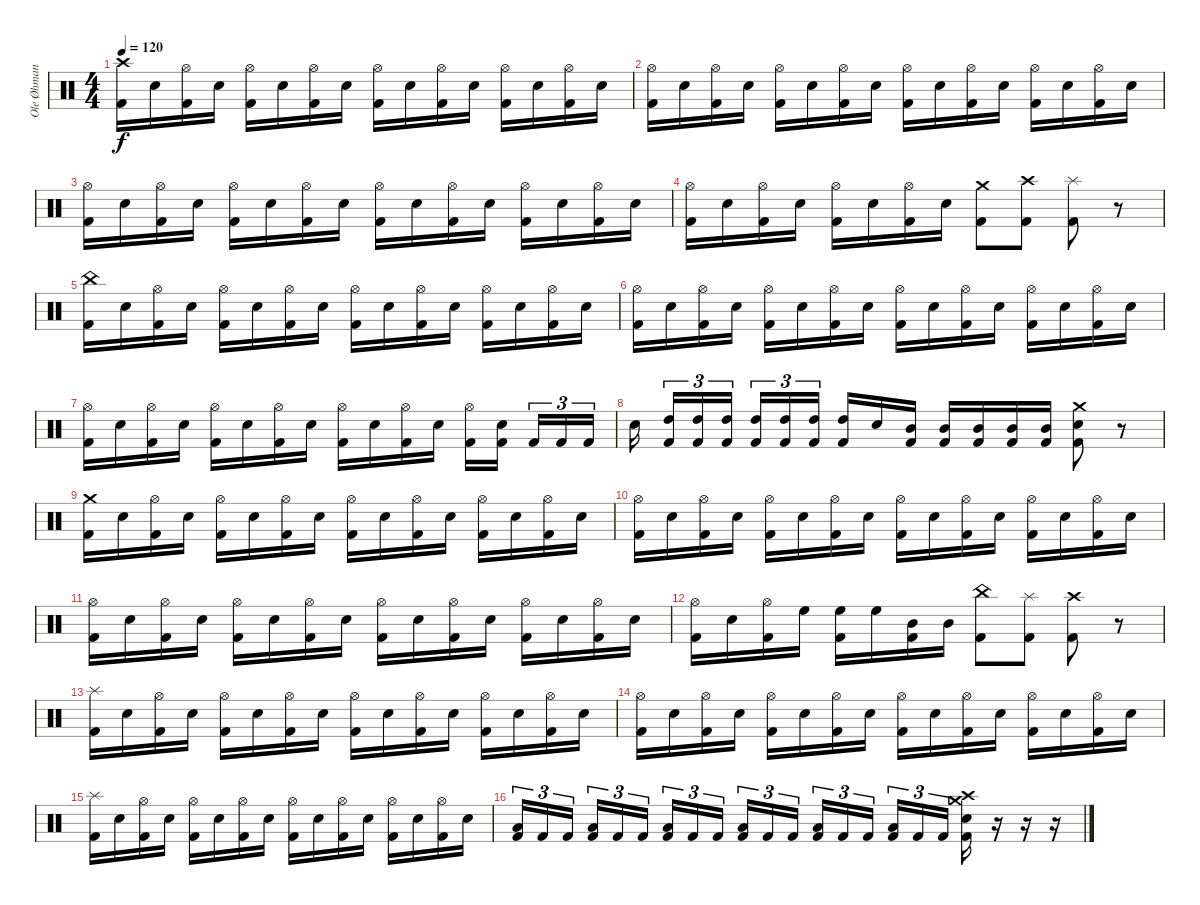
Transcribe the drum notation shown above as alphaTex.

\track ("Ole Øhman (Trommur)" "Ole Øhman ") {instrument percussion}
\staff {score}
\articulation defaults
\ts (4 4)
\tempo 120
\clef neutral
\ks c
("Crash high (hit)" "Kick (hit) 2").16{dy f} "Electric Snare (hit)".16 ("Hi-Hat (open)" "Kick (hit) 2").16 "Electric Snare (hit)".16 ("Hi-Hat (open)" "Kick (hit) 2").16 "Electric Snare (hit)".16 ("Hi-Hat (open)" "Kick (hit) 2").16 "Electric Snare (hit)".16 ("Hi-Hat (open)" "Kick (hit) 2").16 "Electric Snare (hit)".16 ("Hi-Hat (open)" "Kick (hit) 2").16 "Electric Snare (hit)".16 ("Hi-Hat (open)" "Kick (hit) 2").16 "Electric Snare (hit)".16 ("Hi-Hat (open)" "Kick (hit) 2").16 "Electric Snare (hit)".16 |
("Hi-Hat (open)" "Kick (hit) 2").16 "Electric Snare (hit)".16 ("Hi-Hat (open)" "Kick (hit) 2").16 "Electric Snare (hit)".16 ("Hi-Hat (open)" "Kick (hit) 2").16 "Electric Snare (hit)".16 ("Hi-Hat (open)" "Kick (hit) 2").16 "Electric Snare (hit)".16 ("Hi-Hat (open)" "Kick (hit) 2").16 "Electric Snare (hit)".16 ("Hi-Hat (open)" "Kick (hit) 2").16 "Electric Snare (hit)".16 ("Hi-Hat (open)" "Kick (hit) 2").16 "Electric Snare (hit)".16 ("Hi-Hat (open)" "Kick (hit) 2").16 "Electric Snare (hit)".16 |
("Hi-Hat (open)" "Kick (hit) 2").16 "Electric Snare (hit)".16 ("Hi-Hat (open)" "Kick (hit) 2").16 "Electric Snare (hit)".16 ("Hi-Hat (open)" "Kick (hit) 2").16 "Electric Snare (hit)".16 ("Hi-Hat (open)" "Kick (hit) 2").16 "Electric Snare (hit)".16 ("Hi-Hat (open)" "Kick (hit) 2").16 "Electric Snare (hit)".16 ("Hi-Hat (open)" "Kick (hit) 2").16 "Electric Snare (hit)".16 ("Hi-Hat (open)" "Kick (hit) 2").16 "Electric Snare (hit)".16 ("Hi-Hat (open)" "Kick (hit) 2").16 "Electric Snare (hit)".16 |
("Hi-Hat (open)" "Kick (hit) 2").16 "Electric Snare (hit)".16 ("Hi-Hat (open)" "Kick (hit) 2").16 "Electric Snare (hit)".16 ("Hi-Hat (open)" "Kick (hit) 2").16 "Electric Snare (hit)".16 ("Hi-Hat (open)" "Kick (hit) 2").16 "Electric Snare (hit)".16 ("Crash medium (hit)" "Kick (hit) 2").8 ("Crash high (hit)" "Kick (hit) 2").8 ("Splash (hit)" "Kick (hit) 2").8 r.8 |
("China (hit)" "Kick (hit) 2").16 "Electric Snare (hit)".16 ("Hi-Hat (open)" "Kick (hit) 2").16 "Electric Snare (hit)".16 ("Hi-Hat (open)" "Kick (hit) 2").16 "Electric Snare (hit)".16 ("Hi-Hat (open)" "Kick (hit) 2").16 "Electric Snare (hit)".16 ("Hi-Hat (open)" "Kick (hit) 2").16 "Electric Snare (hit)".16 ("Hi-Hat (open)" "Kick (hit) 2").16 "Electric Snare (hit)".16 ("Hi-Hat (open)" "Kick (hit) 2").16 "Electric Snare (hit)".16 ("Hi-Hat (open)" "Kick (hit) 2").16 "Electric Snare (hit)".16 |
("Hi-Hat (open)" "Kick (hit) 2").16 "Electric Snare (hit)".16 ("Hi-Hat (open)" "Kick (hit) 2").16 "Electric Snare (hit)".16 ("Hi-Hat (open)" "Kick (hit) 2").16 "Electric Snare (hit)".16 ("Hi-Hat (open)" "Kick (hit) 2").16 "Electric Snare (hit)".16 ("Hi-Hat (open)" "Kick (hit) 2").16 "Electric Snare (hit)".16 ("Hi-Hat (open)" "Kick (hit) 2").16 "Electric Snare (hit)".16 ("Hi-Hat (open)" "Kick (hit) 2").16 "Electric Snare (hit)".16 ("Hi-Hat (open)" "Kick (hit) 2").16 "Electric Snare (hit)".16 |
("Hi-Hat (open)" "Kick (hit) 2").16 "Electric Snare (hit)".16 ("Hi-Hat (open)" "Kick (hit) 2").16 "Electric Snare (hit)".16 ("Hi-Hat (open)" "Kick (hit) 2").16 "Electric Snare (hit)".16 ("Hi-Hat (open)" "Kick (hit) 2").16 "Electric Snare (hit)".16 ("Hi-Hat (open)" "Kick (hit) 2").16 "Electric Snare (hit)".16 ("Hi-Hat (open)" "Kick (hit) 2").16 "Electric Snare (hit)".16 ("Hi-Hat (open)" "Kick (hit) 2").16 ("Electric Snare (hit)" "Kick (hit) 2").16 "Kick (hit) 2".16{tu (3 2)} "Kick (hit) 2".16{tu (3 2)} "Kick (hit) 2".16{tu (3 2)} |
"Electric Snare (hit)".16 ("High Tom (hit)" "Kick (hit) 2").16{tu (3 2)} ("High Tom (hit)" "Kick (hit) 2").16{tu (3 2)} ("High Tom (hit)" "Kick (hit) 2").16{tu (3 2)} ("High Tom (hit)" "Kick (hit) 2").16{tu (3 2)} ("High Tom (hit)" "Kick (hit) 2").16{tu (3 2)} ("High Tom (hit)" "Kick (hit) 2").16{tu (3 2)} ("High Tom (hit)" "Kick (hit) 2").16 "Electric Snare (hit)".16 ("Mid Tom (hit)" "Kick (hit) 2").16 ("Mid Tom (hit)" "Kick (hit) 2").16 ("Mid Tom (hit)" "Kick (hit) 2").16 ("Mid Tom (hit)" "Kick (hit) 2").16 ("Mid Tom (hit)" "Kick (hit) 2").16 ("Crash medium (hit)" "Electric Snare (hit)" "Kick (hit) 2").8 r.8 |
("Crash medium (hit)" "Kick (hit) 2").16 "Electric Snare (hit)".16 ("Hi-Hat (open)" "Kick (hit) 2").16 "Electric Snare (hit)".16 ("Hi-Hat (open)" "Kick (hit) 2").16 "Electric Snare (hit)".16 ("Hi-Hat (open)" "Kick (hit) 2").16 "Electric Snare (hit)".16 ("Hi-Hat (open)" "Kick (hit) 2").16 "Electric Snare (hit)".16 ("Hi-Hat (open)" "Kick (hit) 2").16 "Electric Snare (hit)".16 ("Hi-Hat (open)" "Kick (hit) 2").16 "Electric Snare (hit)".16 ("Hi-Hat (open)" "Kick (hit) 2").16 "Electric Snare (hit)".16 |
("Hi-Hat (open)" "Kick (hit) 2").16 "Electric Snare (hit)".16 ("Hi-Hat (open)" "Kick (hit) 2").16 "Electric Snare (hit)".16 ("Hi-Hat (open)" "Kick (hit) 2").16 "Electric Snare (hit)".16 ("Hi-Hat (open)" "Kick (hit) 2").16 "Electric Snare (hit)".16 ("Hi-Hat (open)" "Kick (hit) 2").16 "Electric Snare (hit)".16 ("Hi-Hat (open)" "Kick (hit) 2").16 "Electric Snare (hit)".16 ("Hi-Hat (open)" "Kick (hit) 2").16 "Electric Snare (hit)".16 ("Hi-Hat (open)" "Kick (hit) 2").16 "Electric Snare (hit)".16 |
("Hi-Hat (open)" "Kick (hit) 2").16 "Electric Snare (hit)".16 ("Hi-Hat (open)" "Kick (hit) 2").16 "Electric Snare (hit)".16 ("Hi-Hat (open)" "Kick (hit) 2").16 "Electric Snare (hit)".16 ("Hi-Hat (open)" "Kick (hit) 2").16 "Electric Snare (hit)".16 ("Hi-Hat (open)" "Kick (hit) 2").16 "Electric Snare (hit)".16 ("Hi-Hat (open)" "Kick (hit) 2").16 "Electric Snare (hit)".16 ("Hi-Hat (open)" "Kick (hit) 2").16 "Electric Snare (hit)".16 ("Hi-Hat (open)" "Kick (hit) 2").16 "Electric Snare (hit)".16 |
("Hi-Hat (open)" "Kick (hit) 2").16 "Electric Snare (hit)".16 ("Hi-Hat (open)" "Kick (hit) 2").16 "High Floor Tom (hit)".16 ("High Floor Tom (hit)" "Kick (hit) 2").16 "High Floor Tom (hit)".16 ("Mid Tom (hit)" "Kick (hit) 2").16 "Mid Tom (hit)".16 ("China (hit)" "Kick (hit) 2").8 ("Splash (hit)" "Kick (hit) 2").8 ("Crash high (hit)" "Kick (hit) 2").8 r.8 |
("Splash (hit)" "Kick (hit) 2").16 "Electric Snare (hit)".16 ("Hi-Hat (open)" "Kick (hit) 2").16 "Electric Snare (hit)".16 ("Hi-Hat (open)" "Kick (hit) 2").16 "Electric Snare (hit)".16 ("Hi-Hat (open)" "Kick (hit) 2").16 "Electric Snare (hit)".16 ("Hi-Hat (open)" "Kick (hit) 2").16 "Electric Snare (hit)".16 ("Hi-Hat (open)" "Kick (hit) 2").16 "Electric Snare (hit)".16 ("Hi-Hat (open)" "Kick (hit) 2").16 "Electric Snare (hit)".16 ("Hi-Hat (open)" "Kick (hit) 2").16 "Electric Snare (hit)".16 |
("Hi-Hat (open)" "Kick (hit) 2").16 "Electric Snare (hit)".16 ("Hi-Hat (open)" "Kick (hit) 2").16 "Electric Snare (hit)".16 ("Hi-Hat (open)" "Kick (hit) 2").16 "Electric Snare (hit)".16 ("Hi-Hat (open)" "Kick (hit) 2").16 "Electric Snare (hit)".16 ("Hi-Hat (open)" "Kick (hit) 2").16 "Electric Snare (hit)".16 ("Hi-Hat (open)" "Kick (hit) 2").16 "Electric Snare (hit)".16 ("Hi-Hat (open)" "Kick (hit) 2").16 "Electric Snare (hit)".16 ("Hi-Hat (open)" "Kick (hit) 2").16 "Electric Snare (hit)".16 |
("Splash (hit)" "Kick (hit) 2").16 "Electric Snare (hit)".16 ("Hi-Hat (open)" "Kick (hit) 2").16 "Electric Snare (hit)".16 ("Hi-Hat (open)" "Kick (hit) 2").16 "Electric Snare (hit)".16 ("Hi-Hat (open)" "Kick (hit) 2").16 "Electric Snare (hit)".16 ("Hi-Hat (open)" "Kick (hit) 2").16 "Electric Snare (hit)".16 ("Hi-Hat (open)" "Kick (hit) 2").16 "Electric Snare (hit)".16 ("Hi-Hat (open)" "Kick (hit) 2").16 "Electric Snare (hit)".16 ("Hi-Hat (open)" "Kick (hit) 2").16 "Electric Snare (hit)".16 |
("Low Tom (hit)" "Kick (hit) 2").16{tu (3 2)} "Kick (hit) 2".16{tu (3 2)} "Kick (hit) 2".16{tu (3 2)} ("Low Tom (hit)" "Kick (hit) 2").16{tu (3 2)} "Kick (hit) 2".16{tu (3 2)} "Kick (hit) 2".16{tu (3 2)} ("Low Tom (hit)" "Kick (hit) 2").16{tu (3 2)} "Kick (hit) 2".16{tu (3 2)} "Kick (hit) 2".16{tu (3 2)} ("Low Tom (hit)" "Kick (hit) 2").16{tu (3 2)} "Kick (hit) 2".16{tu (3 2)} "Kick (hit) 2".16{tu (3 2)} ("Low Tom (hit)" "Kick (hit) 2").16{tu (3 2)} "Kick (hit) 2".16{tu (3 2)} "Kick (hit) 2".16{tu (3 2)} ("Low Tom (hit)" "Kick (hit) 2").16{tu (3 2)} "Kick (hit) 2".16{tu (3 2)} "Kick (hit) 2".16{tu (3 2)} ("Crash medium (hit)" "Crash high (hit)" "Electric Snare (hit)" "Kick (hit) 2").16 r.16 r.16 r.16
